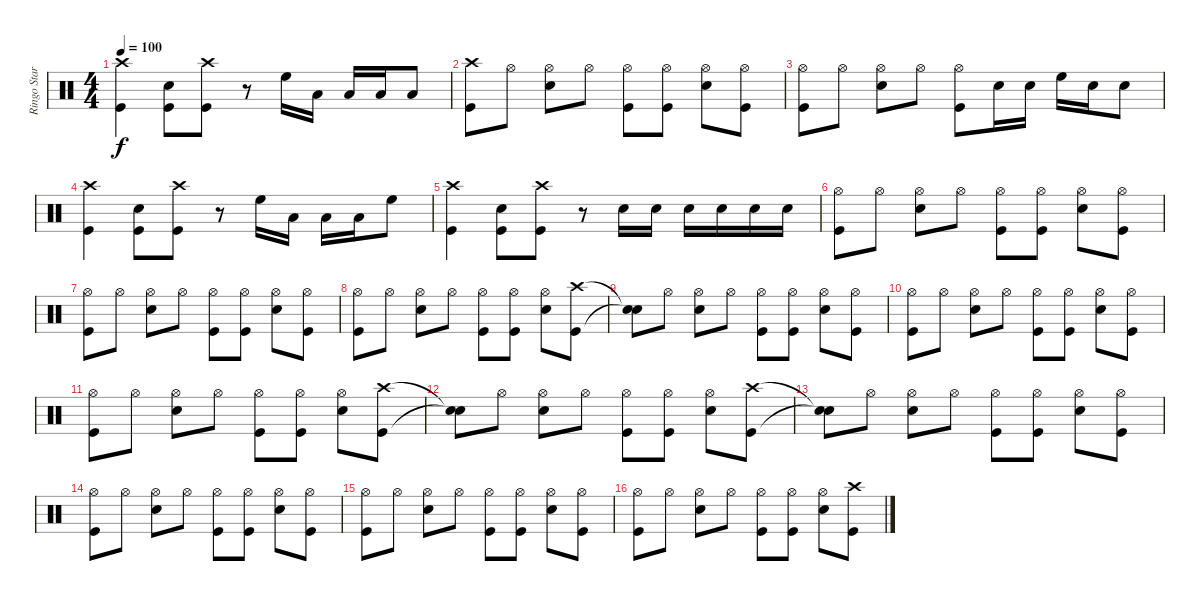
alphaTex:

\track ("Ringo Starr" "Ringo Star") {instrument percussion}
\staff {score}
\articulation defaults
\ts (4 4)
\tempo 100
\clef neutral
\ks c
("Crash high (hit)" "Kick (hit)").4{dy f} ("Snare (hit) 2" "Kick (hit)").8 ("Crash high (hit)" "Kick (hit)").8 r.8 "High Floor Tom (hit)".16 "Low Floor Tom (hit)".16 "Low Floor Tom (hit)".16 "Low Floor Tom (hit)".16 "Low Floor Tom (hit)".8 |
("Crash high (hit)" "Kick (hit)").8 "Hi-Hat (open)".8 ("Hi-Hat (open)" "Snare (hit) 2").8 "Hi-Hat (open)".8 ("Hi-Hat (open)" "Kick (hit)").8 ("Hi-Hat (open)" "Kick (hit)").8 ("Hi-Hat (open)" "Snare (hit) 2").8 ("Hi-Hat (open)" "Kick (hit)").8 |
("Hi-Hat (open)" "Kick (hit)").8 "Hi-Hat (open)".8 ("Hi-Hat (open)" "Snare (hit) 2").8 "Hi-Hat (open)".8 ("Hi-Hat (open)" "Kick (hit)").8 "Snare (hit) 2".16 "Snare (hit) 2".16 "High Floor Tom (hit)".16 "Snare (hit) 2".16 "Snare (hit) 2".8 |
("Crash high (hit)" "Kick (hit)").4 ("Snare (hit) 2" "Kick (hit)").8 ("Crash high (hit)" "Kick (hit)").8 r.8 "High Floor Tom (hit)".16 "Low Floor Tom (hit)".16 "Low Floor Tom (hit)".16 "Low Floor Tom (hit)".16 "High Floor Tom (hit)".8 |
("Crash high (hit)" "Kick (hit)").4 ("Snare (hit) 2" "Kick (hit)").8 ("Crash high (hit)" "Kick (hit)").8 r.8 "Snare (hit) 2".16 "Snare (hit) 2".16 "Snare (hit) 2".16 "Snare (hit) 2".16 "Snare (hit) 2".16 "Snare (hit) 2".16 |
("Hi-Hat (open)" "Kick (hit)").8 "Hi-Hat (open)".8 ("Hi-Hat (open)" "Snare (hit) 2").8 "Hi-Hat (open)".8 ("Hi-Hat (open)" "Kick (hit)").8 ("Hi-Hat (open)" "Kick (hit)").8 ("Hi-Hat (open)" "Snare (hit) 2").8 ("Hi-Hat (open)" "Kick (hit)").8 |
("Hi-Hat (open)" "Kick (hit)").8 "Hi-Hat (open)".8 ("Hi-Hat (open)" "Snare (hit) 2").8 "Hi-Hat (open)".8 ("Hi-Hat (open)" "Kick (hit)").8 ("Hi-Hat (open)" "Kick (hit)").8 ("Hi-Hat (open)" "Snare (hit) 2").8 ("Hi-Hat (open)" "Kick (hit)").8 |
("Hi-Hat (open)" "Kick (hit)").8 "Hi-Hat (open)".8 ("Hi-Hat (open)" "Snare (hit) 2").8 "Hi-Hat (open)".8 ("Hi-Hat (open)" "Kick (hit)").8 ("Hi-Hat (open)" "Kick (hit)").8 ("Hi-Hat (open)" "Snare (hit) 2").8 ("Crash high (hit)" "Kick (hit)").8 |
("Snare (hit)"{t} "Snare (hit)"{t}).8 "Hi-Hat (open)".8 ("Hi-Hat (open)" "Snare (hit) 2").8 "Hi-Hat (open)".8 ("Hi-Hat (open)" "Kick (hit)").8 ("Hi-Hat (open)" "Kick (hit)").8 ("Hi-Hat (open)" "Snare (hit) 2").8 ("Hi-Hat (open)" "Kick (hit)").8 |
("Hi-Hat (open)" "Kick (hit)").8 "Hi-Hat (open)".8 ("Hi-Hat (open)" "Snare (hit) 2").8 "Hi-Hat (open)".8 ("Hi-Hat (open)" "Kick (hit)").8 ("Hi-Hat (open)" "Kick (hit)").8 ("Hi-Hat (open)" "Snare (hit) 2").8 ("Hi-Hat (open)" "Kick (hit)").8 |
("Hi-Hat (open)" "Kick (hit)").8 "Hi-Hat (open)".8 ("Hi-Hat (open)" "Snare (hit) 2").8 "Hi-Hat (open)".8 ("Hi-Hat (open)" "Kick (hit)").8 ("Hi-Hat (open)" "Kick (hit)").8 ("Hi-Hat (open)" "Snare (hit) 2").8 ("Crash high (hit)" "Kick (hit)").8 |
("Snare (hit)"{t} "Snare (hit)"{t}).8 "Hi-Hat (open)".8 ("Hi-Hat (open)" "Snare (hit) 2").8 "Hi-Hat (open)".8 ("Hi-Hat (open)" "Kick (hit)").8 ("Hi-Hat (open)" "Kick (hit)").8 ("Hi-Hat (open)" "Snare (hit) 2").8 ("Crash high (hit)" "Kick (hit)").8 |
("Snare (hit)"{t} "Snare (hit)"{t}).8 "Hi-Hat (open)".8 ("Hi-Hat (open)" "Snare (hit) 2").8 "Hi-Hat (open)".8 ("Hi-Hat (open)" "Kick (hit)").8 ("Hi-Hat (open)" "Kick (hit)").8 ("Hi-Hat (open)" "Snare (hit) 2").8 ("Hi-Hat (open)" "Kick (hit)").8 |
("Hi-Hat (open)" "Kick (hit)").8 "Hi-Hat (open)".8 ("Hi-Hat (open)" "Snare (hit) 2").8 "Hi-Hat (open)".8 ("Hi-Hat (open)" "Kick (hit)").8 ("Hi-Hat (open)" "Kick (hit)").8 ("Hi-Hat (open)" "Snare (hit) 2").8 ("Hi-Hat (open)" "Kick (hit)").8 |
("Hi-Hat (open)" "Kick (hit)").8 "Hi-Hat (open)".8 ("Hi-Hat (open)" "Snare (hit) 2").8 "Hi-Hat (open)".8 ("Hi-Hat (open)" "Kick (hit)").8 ("Hi-Hat (open)" "Kick (hit)").8 ("Hi-Hat (open)" "Snare (hit) 2").8 ("Hi-Hat (open)" "Kick (hit)").8 |
("Hi-Hat (open)" "Kick (hit)").8 "Hi-Hat (open)".8 ("Hi-Hat (open)" "Snare (hit) 2").8 "Hi-Hat (open)".8 ("Hi-Hat (open)" "Kick (hit)").8 ("Hi-Hat (open)" "Kick (hit)").8 ("Hi-Hat (open)" "Snare (hit) 2").8 ("Crash high (hit)" "Kick (hit)").8
